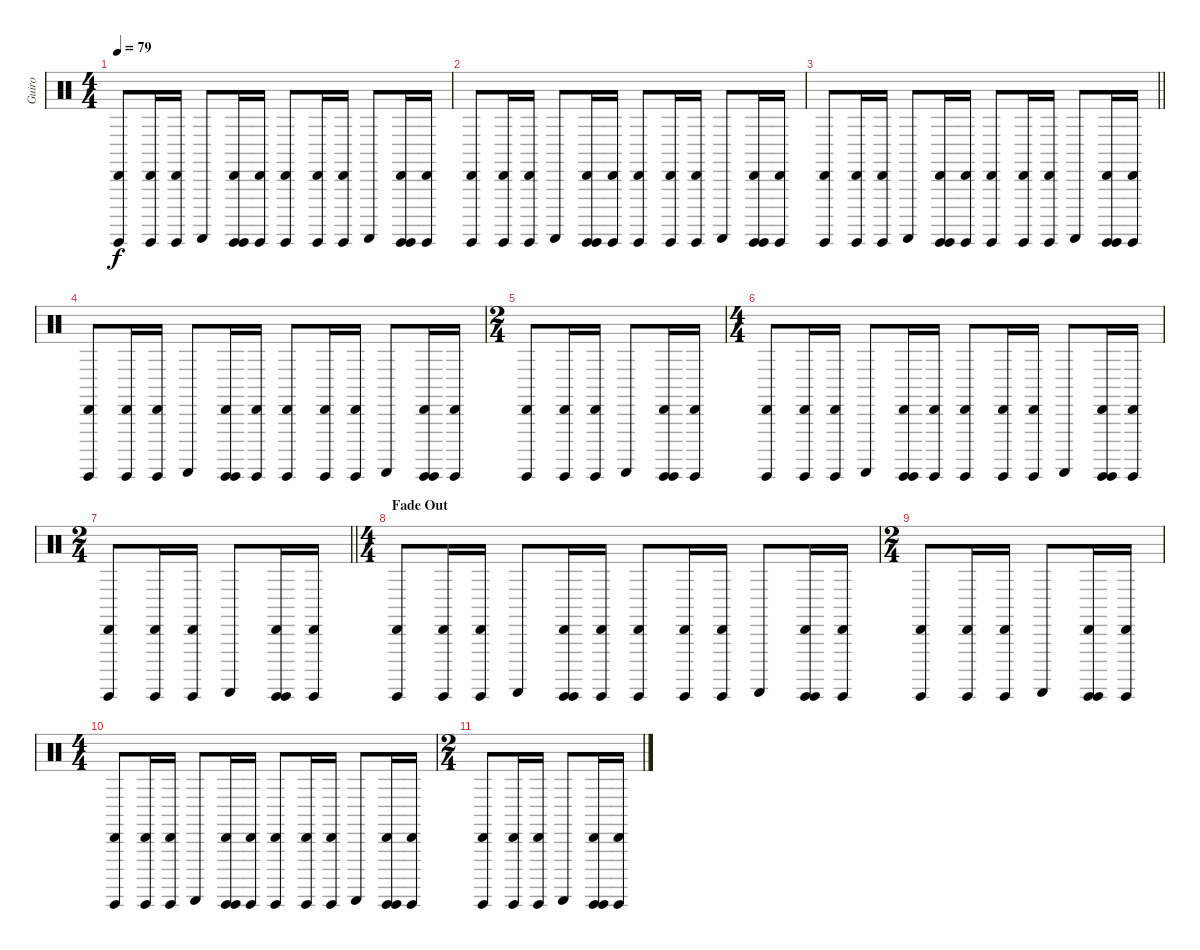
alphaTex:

\track ("Guiro" "Guiro") {instrument percussion}
\staff {score}
\articulation defaults
\ts (4 4)
\section ("" "")
\tempo 79
\clef neutral
\ks c
("Guiro (hit)" "Cabasa (hit)").8{dy f} ("Guiro (hit)" "Cabasa (hit)").16 ("Guiro (hit)" "Cabasa (hit)").16 "Guiro (scrap-return)".8 ("Guiro (hit)" "Guiro (hit)" "Cabasa (hit)").16 ("Guiro (hit)" "Cabasa (hit)").16 ("Guiro (hit)" "Cabasa (hit)").8 ("Guiro (hit)" "Cabasa (hit)").16 ("Guiro (hit)" "Cabasa (hit)").16 "Guiro (scrap-return)".8 ("Guiro (hit)" "Guiro (hit)" "Cabasa (hit)").16 ("Guiro (hit)" "Cabasa (hit)").16 |
("Guiro (hit)" "Cabasa (hit)").8 ("Guiro (hit)" "Cabasa (hit)").16 ("Guiro (hit)" "Cabasa (hit)").16 "Guiro (scrap-return)".8 ("Guiro (hit)" "Guiro (hit)" "Cabasa (hit)").16 ("Guiro (hit)" "Cabasa (hit)").16 ("Guiro (hit)" "Cabasa (hit)").8 ("Guiro (hit)" "Cabasa (hit)").16 ("Guiro (hit)" "Cabasa (hit)").16 "Guiro (scrap-return)".8 ("Guiro (hit)" "Guiro (hit)" "Cabasa (hit)").16 ("Guiro (hit)" "Cabasa (hit)").16 |
\barLineRight lightlight
("Guiro (hit)" "Cabasa (hit)").8 ("Guiro (hit)" "Cabasa (hit)").16 ("Guiro (hit)" "Cabasa (hit)").16 "Guiro (scrap-return)".8 ("Guiro (hit)" "Guiro (hit)" "Cabasa (hit)").16 ("Guiro (hit)" "Cabasa (hit)").16 ("Guiro (hit)" "Cabasa (hit)").8 ("Guiro (hit)" "Cabasa (hit)").16 ("Guiro (hit)" "Cabasa (hit)").16 "Guiro (scrap-return)".8 ("Guiro (hit)" "Guiro (hit)" "Cabasa (hit)").16 ("Guiro (hit)" "Cabasa (hit)").16 |
\section ("" "")
("Guiro (hit)" "Cabasa (hit)").8 ("Guiro (hit)" "Cabasa (hit)").16 ("Guiro (hit)" "Cabasa (hit)").16 "Guiro (scrap-return)".8 ("Guiro (hit)" "Guiro (hit)" "Cabasa (hit)").16 ("Guiro (hit)" "Cabasa (hit)").16 ("Guiro (hit)" "Cabasa (hit)").8 ("Guiro (hit)" "Cabasa (hit)").16 ("Guiro (hit)" "Cabasa (hit)").16 "Guiro (scrap-return)".8 ("Guiro (hit)" "Guiro (hit)" "Cabasa (hit)").16 ("Guiro (hit)" "Cabasa (hit)").16 |
\ts (2 4)
("Guiro (hit)" "Cabasa (hit)").8 ("Guiro (hit)" "Cabasa (hit)").16 ("Guiro (hit)" "Cabasa (hit)").16 "Guiro (scrap-return)".8 ("Guiro (hit)" "Guiro (hit)" "Cabasa (hit)").16 ("Guiro (hit)" "Cabasa (hit)").16 |
\ts (4 4)
("Guiro (hit)" "Cabasa (hit)").8 ("Guiro (hit)" "Cabasa (hit)").16 ("Guiro (hit)" "Cabasa (hit)").16 "Guiro (scrap-return)".8 ("Guiro (hit)" "Guiro (hit)" "Cabasa (hit)").16 ("Guiro (hit)" "Cabasa (hit)").16 ("Guiro (hit)" "Cabasa (hit)").8 ("Guiro (hit)" "Cabasa (hit)").16 ("Guiro (hit)" "Cabasa (hit)").16 "Guiro (scrap-return)".8 ("Guiro (hit)" "Guiro (hit)" "Cabasa (hit)").16 ("Guiro (hit)" "Cabasa (hit)").16 |
\ts (2 4)
\barLineRight lightlight
("Guiro (hit)" "Cabasa (hit)").8 ("Guiro (hit)" "Cabasa (hit)").16 ("Guiro (hit)" "Cabasa (hit)").16 "Guiro (scrap-return)".8 ("Guiro (hit)" "Guiro (hit)" "Cabasa (hit)").16 ("Guiro (hit)" "Cabasa (hit)").16 |
\ts (4 4)
\section ("" "Fade Out")
("Guiro (hit)" "Cabasa (hit)").8 ("Guiro (hit)" "Cabasa (hit)").16 ("Guiro (hit)" "Cabasa (hit)").16 "Guiro (scrap-return)".8 ("Guiro (hit)" "Guiro (hit)" "Cabasa (hit)").16 ("Guiro (hit)" "Cabasa (hit)").16 ("Guiro (hit)" "Cabasa (hit)").8 ("Guiro (hit)" "Cabasa (hit)").16 ("Guiro (hit)" "Cabasa (hit)").16 "Guiro (scrap-return)".8{volume 10} ("Guiro (hit)" "Guiro (hit)" "Cabasa (hit)").16 ("Guiro (hit)" "Cabasa (hit)").16 |
\ts (2 4)
("Guiro (hit)" "Cabasa (hit)").8 ("Guiro (hit)" "Cabasa (hit)").16 ("Guiro (hit)" "Cabasa (hit)").16 "Guiro (scrap-return)".8{volume 9} ("Guiro (hit)" "Guiro (hit)" "Cabasa (hit)").16 ("Guiro (hit)" "Cabasa (hit)").16 |
\ts (4 4)
("Guiro (hit)" "Cabasa (hit)").8{volume 8} ("Guiro (hit)" "Cabasa (hit)").16 ("Guiro (hit)" "Cabasa (hit)").16 "Guiro (scrap-return)".8{volume 7} ("Guiro (hit)" "Guiro (hit)" "Cabasa (hit)").16 ("Guiro (hit)" "Cabasa (hit)").16 ("Guiro (hit)" "Cabasa (hit)").8{volume 5} ("Guiro (hit)" "Cabasa (hit)").16 ("Guiro (hit)" "Cabasa (hit)").16 "Guiro (scrap-return)".8{volume 4} ("Guiro (hit)" "Guiro (hit)" "Cabasa (hit)").16 ("Guiro (hit)" "Cabasa (hit)").16 |
\ts (2 4)
("Guiro (hit)" "Cabasa (hit)").8{volume 3} ("Guiro (hit)" "Cabasa (hit)").16{volume 2} ("Guiro (hit)" "Cabasa (hit)").16 "Guiro (scrap-return)".8 ("Guiro (hit)" "Guiro (hit)" "Cabasa (hit)").16{volume 1} ("Guiro (hit)" "Cabasa (hit)").16
